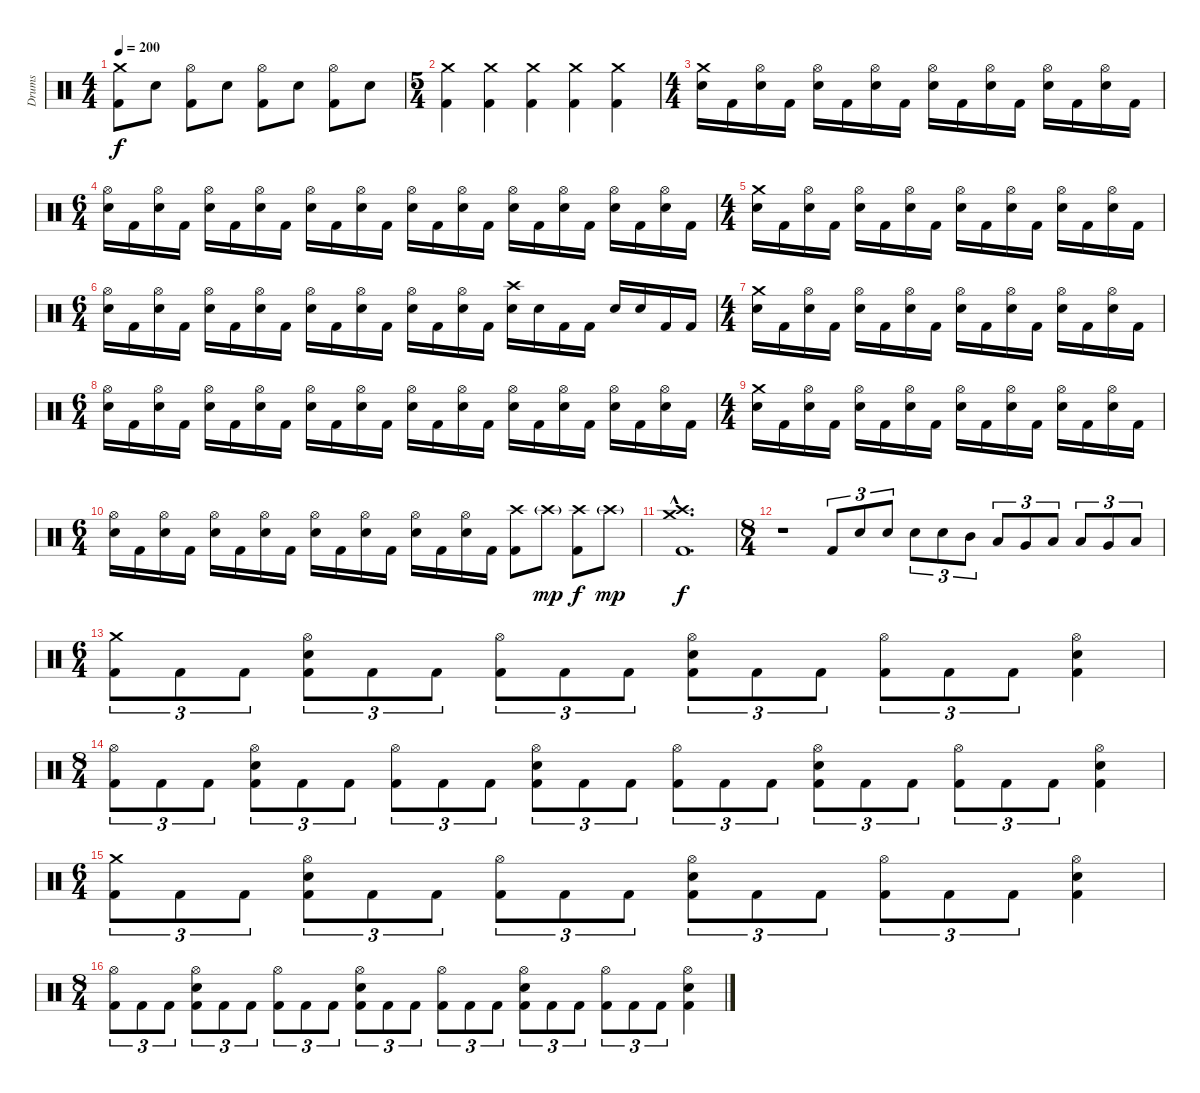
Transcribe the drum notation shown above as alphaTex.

\track ("Drums" "Drums") {instrument percussion}
\staff {score}
\articulation defaults
\ts (4 4)
\tempo 200
\clef neutral
\ks c
("Crash medium (hit)" "Kick (hit) 2").8{dy f} "Electric Snare (hit)".8 ("Hi-Hat (open)" "Kick (hit) 2").8 "Electric Snare (hit)".8 ("Hi-Hat (open)" "Kick (hit) 2").8 "Electric Snare (hit)".8 ("Hi-Hat (open)" "Kick (hit) 2").8 "Electric Snare (hit)".8 |
\ts (5 4)
("Crash medium (hit)" "Kick (hit) 2").4 ("Crash medium (hit)" "Kick (hit) 2").4 ("Crash medium (hit)" "Kick (hit) 2").4 ("Crash medium (hit)" "Kick (hit) 2").4 ("Crash medium (hit)" "Kick (hit) 2").4 |
\ts (4 4)
\section ("" "")
("Crash medium (hit)" "Electric Snare (hit)").16 "Kick (hit) 2".16 ("Hi-Hat (open)" "Electric Snare (hit)").16 "Kick (hit) 2".16 ("Hi-Hat (open)" "Electric Snare (hit)").16 "Kick (hit) 2".16 ("Hi-Hat (open)" "Electric Snare (hit)").16 "Kick (hit) 2".16 ("Hi-Hat (open)" "Electric Snare (hit)").16 "Kick (hit) 2".16 ("Hi-Hat (open)" "Electric Snare (hit)").16 "Kick (hit) 2".16 ("Hi-Hat (open)" "Electric Snare (hit)").16 "Kick (hit) 2".16 ("Hi-Hat (open)" "Electric Snare (hit)").16 "Kick (hit) 2".16 |
\ts (6 4)
("Hi-Hat (open)" "Electric Snare (hit)").16 "Kick (hit) 2".16 ("Hi-Hat (open)" "Electric Snare (hit)").16 "Kick (hit) 2".16 ("Hi-Hat (open)" "Electric Snare (hit)").16 "Kick (hit) 2".16 ("Hi-Hat (open)" "Electric Snare (hit)").16 "Kick (hit) 2".16 ("Hi-Hat (open)" "Electric Snare (hit)").16 "Kick (hit) 2".16 ("Hi-Hat (open)" "Electric Snare (hit)").16 "Kick (hit) 2".16 ("Hi-Hat (open)" "Electric Snare (hit)").16 "Kick (hit) 2".16 ("Hi-Hat (open)" "Electric Snare (hit)").16 "Kick (hit) 2".16 ("Hi-Hat (open)" "Electric Snare (hit)").16 "Kick (hit) 2".16 ("Hi-Hat (open)" "Electric Snare (hit)").16 "Kick (hit) 2".16 ("Hi-Hat (open)" "Electric Snare (hit)").16 "Kick (hit) 2".16 ("Hi-Hat (open)" "Electric Snare (hit)").16 "Kick (hit) 2".16 |
\ts (4 4)
("Crash medium (hit)" "Electric Snare (hit)").16 "Kick (hit) 2".16 ("Hi-Hat (open)" "Electric Snare (hit)").16 "Kick (hit) 2".16 ("Hi-Hat (open)" "Electric Snare (hit)").16 "Kick (hit) 2".16 ("Hi-Hat (open)" "Electric Snare (hit)").16 "Kick (hit) 2".16 ("Hi-Hat (open)" "Electric Snare (hit)").16 "Kick (hit) 2".16 ("Hi-Hat (open)" "Electric Snare (hit)").16 "Kick (hit) 2".16 ("Hi-Hat (open)" "Electric Snare (hit)").16 "Kick (hit) 2".16 ("Hi-Hat (open)" "Electric Snare (hit)").16 "Kick (hit) 2".16 |
\ts (6 4)
("Hi-Hat (open)" "Electric Snare (hit)").16 "Kick (hit) 2".16 ("Hi-Hat (open)" "Electric Snare (hit)").16 "Kick (hit) 2".16 ("Hi-Hat (open)" "Electric Snare (hit)").16 "Kick (hit) 2".16 ("Hi-Hat (open)" "Electric Snare (hit)").16 "Kick (hit) 2".16 ("Hi-Hat (open)" "Electric Snare (hit)").16 "Kick (hit) 2".16 ("Hi-Hat (open)" "Electric Snare (hit)").16 "Kick (hit) 2".16 ("Hi-Hat (open)" "Electric Snare (hit)").16 "Kick (hit) 2".16 ("Hi-Hat (open)" "Electric Snare (hit)").16 "Kick (hit) 2".16 ("Crash high (hit)" "Electric Snare (hit)").16 "Electric Snare (hit)".16 "Kick (hit) 2".16 "Kick (hit) 2".16 "Electric Snare (hit)".16 "Electric Snare (hit)".16 "Kick (hit) 2".16 "Kick (hit) 2".16 |
\ts (4 4)
("Crash medium (hit)" "Electric Snare (hit)").16 "Kick (hit) 2".16 ("Hi-Hat (open)" "Electric Snare (hit)").16 "Kick (hit) 2".16 ("Hi-Hat (open)" "Electric Snare (hit)").16 "Kick (hit) 2".16 ("Hi-Hat (open)" "Electric Snare (hit)").16 "Kick (hit) 2".16 ("Hi-Hat (open)" "Electric Snare (hit)").16 "Kick (hit) 2".16 ("Hi-Hat (open)" "Electric Snare (hit)").16 "Kick (hit) 2".16 ("Hi-Hat (open)" "Electric Snare (hit)").16 "Kick (hit) 2".16 ("Hi-Hat (open)" "Electric Snare (hit)").16 "Kick (hit) 2".16 |
\ts (6 4)
("Hi-Hat (open)" "Electric Snare (hit)").16 "Kick (hit) 2".16 ("Hi-Hat (open)" "Electric Snare (hit)").16 "Kick (hit) 2".16 ("Hi-Hat (open)" "Electric Snare (hit)").16 "Kick (hit) 2".16 ("Hi-Hat (open)" "Electric Snare (hit)").16 "Kick (hit) 2".16 ("Hi-Hat (open)" "Electric Snare (hit)").16 "Kick (hit) 2".16 ("Hi-Hat (open)" "Electric Snare (hit)").16 "Kick (hit) 2".16 ("Hi-Hat (open)" "Electric Snare (hit)").16 "Kick (hit) 2".16 ("Hi-Hat (open)" "Electric Snare (hit)").16 "Kick (hit) 2".16 ("Hi-Hat (open)" "Electric Snare (hit)").16 "Kick (hit) 2".16 ("Hi-Hat (open)" "Electric Snare (hit)").16 "Kick (hit) 2".16 ("Hi-Hat (open)" "Electric Snare (hit)").16 "Kick (hit) 2".16 ("Hi-Hat (open)" "Electric Snare (hit)").16 "Kick (hit) 2".16 |
\ts (4 4)
("Crash medium (hit)" "Electric Snare (hit)").16 "Kick (hit) 2".16 ("Hi-Hat (open)" "Electric Snare (hit)").16 "Kick (hit) 2".16 ("Hi-Hat (open)" "Electric Snare (hit)").16 "Kick (hit) 2".16 ("Hi-Hat (open)" "Electric Snare (hit)").16 "Kick (hit) 2".16 ("Hi-Hat (open)" "Electric Snare (hit)").16 "Kick (hit) 2".16 ("Hi-Hat (open)" "Electric Snare (hit)").16 "Kick (hit) 2".16 ("Hi-Hat (open)" "Electric Snare (hit)").16 "Kick (hit) 2".16 ("Hi-Hat (open)" "Electric Snare (hit)").16 "Kick (hit) 2".16 |
\ts (6 4)
("Hi-Hat (open)" "Electric Snare (hit)").16 "Kick (hit) 2".16 ("Hi-Hat (open)" "Electric Snare (hit)").16 "Kick (hit) 2".16 ("Hi-Hat (open)" "Electric Snare (hit)").16 "Kick (hit) 2".16 ("Hi-Hat (open)" "Electric Snare (hit)").16 "Kick (hit) 2".16 ("Hi-Hat (open)" "Electric Snare (hit)").16 "Kick (hit) 2".16 ("Hi-Hat (open)" "Electric Snare (hit)").16 "Kick (hit) 2".16 ("Hi-Hat (open)" "Electric Snare (hit)").16 "Kick (hit) 2".16 ("Hi-Hat (open)" "Electric Snare (hit)").16 "Kick (hit) 2".16 ("Crash high (hit)" "Kick (hit) 2").8 "Crash high (hit)"{g}.8{dy mp} ("Crash high (hit)" "Kick (hit) 2").8{dy f} "Crash high (hit)"{g}.8{dy mp} |
\section ("" "")
("Crash high (hit)"{hac} "Crash medium (hit)"{hac} "Kick (hit) 2"{hac}).1{d dy f} |
\ts (8 4)
r.1 "Kick (hit) 2".8{tu (3 2)} "Electric Snare (hit)".8{tu (3 2)} "Electric Snare (hit)".8{tu (3 2)} "Electric Snare (hit)".8{tu (3 2)} "Electric Snare (hit)".8{tu (3 2)} "Mid Tom (hit)".8{tu (3 2)} "Low Tom (hit)".8{tu (3 2)} "Very Low Tom (hit)".8{tu (3 2)} "Low Floor Tom (hit)".8{tu (3 2)} "Low Floor Tom (hit)".8{tu (3 2)} "Very Low Tom (hit)".8{tu (3 2)} "Low Floor Tom (hit)".8{tu (3 2)} |
\ts (6 4)
("Crash medium (hit)" "Kick (hit) 2").8{tu (3 2)} "Kick (hit) 2".8{tu (3 2)} "Kick (hit) 2".8{tu (3 2)} ("Hi-Hat (open)" "Electric Snare (hit)" "Kick (hit) 2").8{tu (3 2)} "Kick (hit) 2".8{tu (3 2)} "Kick (hit) 2".8{tu (3 2)} ("Hi-Hat (open)" "Kick (hit) 2").8{tu (3 2)} "Kick (hit) 2".8{tu (3 2)} "Kick (hit) 2".8{tu (3 2)} ("Hi-Hat (open)" "Electric Snare (hit)" "Kick (hit) 2").8{tu (3 2)} "Kick (hit) 2".8{tu (3 2)} "Kick (hit) 2".8{tu (3 2)} ("Hi-Hat (open)" "Kick (hit) 2").8{tu (3 2)} "Kick (hit) 2".8{tu (3 2)} "Kick (hit) 2".8{tu (3 2)} ("Hi-Hat (open)" "Electric Snare (hit)" "Kick (hit) 2").4 |
\ts (8 4)
("Hi-Hat (open)" "Kick (hit) 2").8{tu (3 2)} "Kick (hit) 2".8{tu (3 2)} "Kick (hit) 2".8{tu (3 2)} ("Hi-Hat (open)" "Electric Snare (hit)" "Kick (hit) 2").8{tu (3 2)} "Kick (hit) 2".8{tu (3 2)} "Kick (hit) 2".8{tu (3 2)} ("Hi-Hat (open)" "Kick (hit) 2").8{tu (3 2)} "Kick (hit) 2".8{tu (3 2)} "Kick (hit) 2".8{tu (3 2)} ("Hi-Hat (open)" "Electric Snare (hit)" "Kick (hit) 2").8{tu (3 2)} "Kick (hit) 2".8{tu (3 2)} "Kick (hit) 2".8{tu (3 2)} ("Hi-Hat (open)" "Kick (hit) 2").8{tu (3 2)} "Kick (hit) 2".8{tu (3 2)} "Kick (hit) 2".8{tu (3 2)} ("Hi-Hat (open)" "Electric Snare (hit)" "Kick (hit) 2").8{tu (3 2)} "Kick (hit) 2".8{tu (3 2)} "Kick (hit) 2".8{tu (3 2)} ("Hi-Hat (open)" "Kick (hit) 2").8{tu (3 2)} "Kick (hit) 2".8{tu (3 2)} "Kick (hit) 2".8{tu (3 2)} ("Hi-Hat (open)" "Electric Snare (hit)" "Kick (hit) 2").4 |
\ts (6 4)
("Crash medium (hit)" "Kick (hit) 2").8{tu (3 2)} "Kick (hit) 2".8{tu (3 2)} "Kick (hit) 2".8{tu (3 2)} ("Hi-Hat (open)" "Electric Snare (hit)" "Kick (hit) 2").8{tu (3 2)} "Kick (hit) 2".8{tu (3 2)} "Kick (hit) 2".8{tu (3 2)} ("Hi-Hat (open)" "Kick (hit) 2").8{tu (3 2)} "Kick (hit) 2".8{tu (3 2)} "Kick (hit) 2".8{tu (3 2)} ("Hi-Hat (open)" "Electric Snare (hit)" "Kick (hit) 2").8{tu (3 2)} "Kick (hit) 2".8{tu (3 2)} "Kick (hit) 2".8{tu (3 2)} ("Hi-Hat (open)" "Kick (hit) 2").8{tu (3 2)} "Kick (hit) 2".8{tu (3 2)} "Kick (hit) 2".8{tu (3 2)} ("Hi-Hat (open)" "Electric Snare (hit)" "Kick (hit) 2").4 |
\ts (8 4)
("Hi-Hat (open)" "Kick (hit) 2").8{tu (3 2)} "Kick (hit) 2".8{tu (3 2)} "Kick (hit) 2".8{tu (3 2)} ("Hi-Hat (open)" "Electric Snare (hit)" "Kick (hit) 2").8{tu (3 2)} "Kick (hit) 2".8{tu (3 2)} "Kick (hit) 2".8{tu (3 2)} ("Hi-Hat (open)" "Kick (hit) 2").8{tu (3 2)} "Kick (hit) 2".8{tu (3 2)} "Kick (hit) 2".8{tu (3 2)} ("Hi-Hat (open)" "Electric Snare (hit)" "Kick (hit) 2").8{tu (3 2)} "Kick (hit) 2".8{tu (3 2)} "Kick (hit) 2".8{tu (3 2)} ("Hi-Hat (open)" "Kick (hit) 2").8{tu (3 2)} "Kick (hit) 2".8{tu (3 2)} "Kick (hit) 2".8{tu (3 2)} ("Hi-Hat (open)" "Electric Snare (hit)" "Kick (hit) 2").8{tu (3 2)} "Kick (hit) 2".8{tu (3 2)} "Kick (hit) 2".8{tu (3 2)} ("Hi-Hat (open)" "Kick (hit) 2").8{tu (3 2)} "Kick (hit) 2".8{tu (3 2)} "Kick (hit) 2".8{tu (3 2)} ("Hi-Hat (open)" "Electric Snare (hit)" "Kick (hit) 2").4
